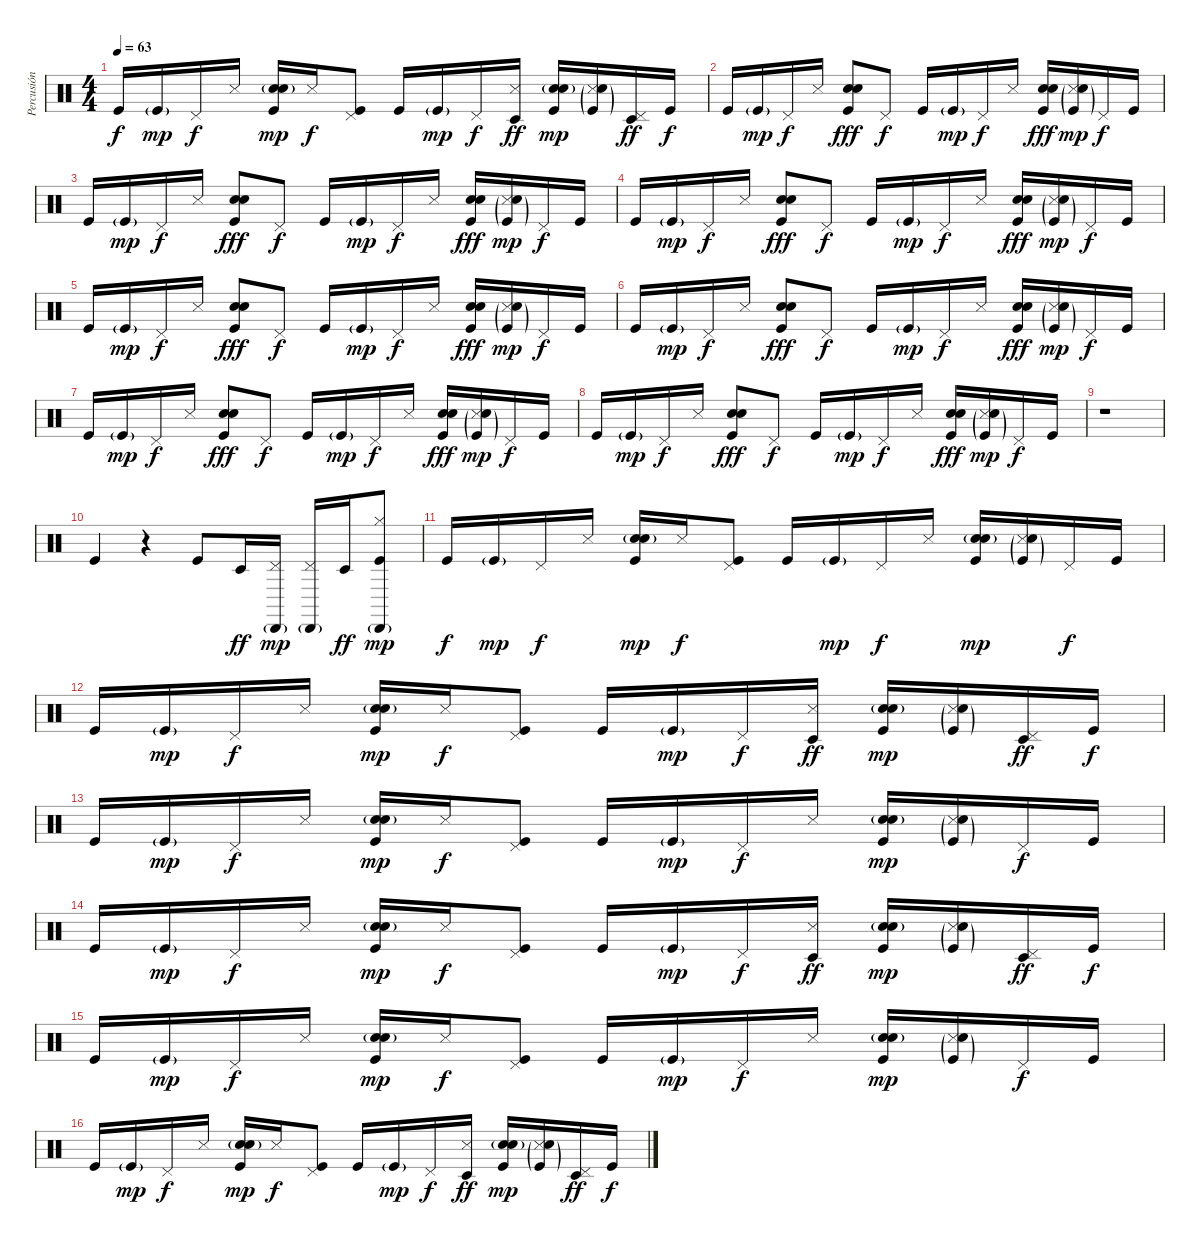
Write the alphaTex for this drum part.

\track ("Percusión" "Percusión") {instrument percussion}
\staff {score}
\articulation defaults
\ts (4 4)
\tempo 63
\clef neutral
\ks c "Kick (hit)".16{dy f} "Kick (hit)"{g}.16{dy mp} "Pedal Hi-Hat (hit)".16{dy f} "Snare (side stick) 3".16
("Kick (hit)" "Snare (hit) 2"{g} "Hand Clap (hit)").16{dy mp} "Snare (side stick) 3".16{dy f} ("Kick (hit)" "Pedal Hi-Hat (hit)").8 "Kick (hit)".16 "Kick (hit)"{g}.16{dy mp} "Pedal Hi-Hat (hit)".16{dy f} ("Timbale low (hit)" "Snare (side stick) 3").16{dy ff} ("Kick (hit)" "Snare (hit) 2"{g} "Hand Clap (hit)").16{dy mp} ("Kick (hit)"{g} "Snare (side stick) 3" "Hand Clap (hit)"{g}).16 ("Timbale low (hit)" "Pedal Hi-Hat (hit)").16{dy ff} "Kick (hit)".16{dy f} |
"Kick (hit)".16 "Kick (hit)"{g}.16{dy mp} "Pedal Hi-Hat (hit)".16{dy f} "Snare (side stick) 3".16 ("Kick (hit)" "Snare (hit) 2" "Hand Clap (hit)").8{dy fff} "Pedal Hi-Hat (hit)".8{dy f} "Kick (hit)".16 "Kick (hit)"{g}.16{dy mp} "Pedal Hi-Hat (hit)".16{dy f} "Snare (side stick) 3".16 ("Kick (hit)" "Snare (hit) 2" "Hand Clap (hit)").16{dy fff} ("Kick (hit)"{g} "Snare (side stick) 3" "Hand Clap (hit)"{g}).16{dy mp} "Pedal Hi-Hat (hit)".16{dy f} "Kick (hit)".16 |
"Kick (hit)".16 "Kick (hit)"{g}.16{dy mp} "Pedal Hi-Hat (hit)".16{dy f} "Snare (side stick) 3".16 ("Kick (hit)" "Snare (hit) 2" "Hand Clap (hit)").8{dy fff} "Pedal Hi-Hat (hit)".8{dy f} "Kick (hit)".16 "Kick (hit)"{g}.16{dy mp} "Pedal Hi-Hat (hit)".16{dy f} "Snare (side stick) 3".16 ("Kick (hit)" "Snare (hit) 2" "Hand Clap (hit)").16{dy fff} ("Kick (hit)"{g} "Snare (side stick) 3" "Hand Clap (hit)"{g}).16{dy mp} "Pedal Hi-Hat (hit)".16{dy f} "Kick (hit)".16 |
"Kick (hit)".16 "Kick (hit)"{g}.16{dy mp} "Pedal Hi-Hat (hit)".16{dy f} "Snare (side stick) 3".16 ("Kick (hit)" "Snare (hit) 2" "Hand Clap (hit)").8{dy fff} "Pedal Hi-Hat (hit)".8{dy f} "Kick (hit)".16 "Kick (hit)"{g}.16{dy mp} "Pedal Hi-Hat (hit)".16{dy f} "Snare (side stick) 3".16 ("Kick (hit)" "Snare (hit) 2" "Hand Clap (hit)").16{dy fff} ("Kick (hit)"{g} "Snare (side stick) 3" "Hand Clap (hit)"{g}).16{dy mp} "Pedal Hi-Hat (hit)".16{dy f} "Kick (hit)".16 |
"Kick (hit)".16 "Kick (hit)"{g}.16{dy mp} "Pedal Hi-Hat (hit)".16{dy f} "Snare (side stick) 3".16 ("Kick (hit)" "Snare (hit) 2" "Hand Clap (hit)").8{dy fff} "Pedal Hi-Hat (hit)".8{dy f} "Kick (hit)".16 "Kick (hit)"{g}.16{dy mp} "Pedal Hi-Hat (hit)".16{dy f} "Snare (side stick) 3".16 ("Kick (hit)" "Snare (hit) 2" "Hand Clap (hit)").16{dy fff} ("Kick (hit)"{g} "Snare (side stick) 3" "Hand Clap (hit)"{g}).16{dy mp} "Pedal Hi-Hat (hit)".16{dy f} "Kick (hit)".16 |
"Kick (hit)".16 "Kick (hit)"{g}.16{dy mp} "Pedal Hi-Hat (hit)".16{dy f} "Snare (side stick) 3".16 ("Kick (hit)" "Snare (hit) 2" "Hand Clap (hit)").8{dy fff} "Pedal Hi-Hat (hit)".8{dy f} "Kick (hit)".16 "Kick (hit)"{g}.16{dy mp} "Pedal Hi-Hat (hit)".16{dy f} "Snare (side stick) 3".16 ("Kick (hit)" "Snare (hit) 2" "Hand Clap (hit)").16{dy fff} ("Kick (hit)"{g} "Snare (side stick) 3" "Hand Clap (hit)"{g}).16{dy mp} "Pedal Hi-Hat (hit)".16{dy f} "Kick (hit)".16 |
"Kick (hit)".16 "Kick (hit)"{g}.16{dy mp} "Pedal Hi-Hat (hit)".16{dy f} "Snare (side stick) 3".16 ("Kick (hit)" "Snare (hit) 2" "Hand Clap (hit)").8{dy fff} "Pedal Hi-Hat (hit)".8{dy f} "Kick (hit)".16 "Kick (hit)"{g}.16{dy mp} "Pedal Hi-Hat (hit)".16{dy f} "Snare (side stick) 3".16 ("Kick (hit)" "Snare (hit) 2" "Hand Clap (hit)").16{dy fff} ("Kick (hit)"{g} "Snare (side stick) 3" "Hand Clap (hit)"{g}).16{dy mp} "Pedal Hi-Hat (hit)".16{dy f} "Kick (hit)".16 |
"Kick (hit)".16 "Kick (hit)"{g}.16{dy mp} "Pedal Hi-Hat (hit)".16{dy f} "Snare (side stick) 3".16 ("Kick (hit)" "Snare (hit) 2" "Hand Clap (hit)").8{dy fff} "Pedal Hi-Hat (hit)".8{dy f} "Kick (hit)".16 "Kick (hit)"{g}.16{dy mp} "Pedal Hi-Hat (hit)".16{dy f} "Snare (side stick) 3".16 ("Kick (hit)" "Snare (hit) 2" "Hand Clap (hit)").16{dy fff} ("Kick (hit)"{g} "Snare (side stick) 3" "Hand Clap (hit)"{g}).16{dy mp} "Pedal Hi-Hat (hit)".16{dy f} "Kick (hit)".16 |
r.1 |
"Kick (hit)".4 r.4 "Kick (hit)".8 "Timbale low (hit)".16{dy ff} ("Cabasa (hit)"{g} "Pedal Hi-Hat (hit)").16{dy mp} ("Cabasa (hit)"{g} "Pedal Hi-Hat (hit)").16 "Timbale low (hit)".16{dy ff} ("Kick (hit)" "Cabasa (hit)"{g} "Hi-Hat (closed)").8{dy mp} |
"Kick (hit)".16{dy f} "Kick (hit)"{g}.16{dy mp} "Pedal Hi-Hat (hit)".16{dy f} "Snare (side stick) 3".16 ("Kick (hit)" "Snare (hit) 2"{g} "Hand Clap (hit)").16{dy mp} "Snare (side stick) 3".16{dy f} ("Kick (hit)" "Pedal Hi-Hat (hit)").8 "Kick (hit)".16 "Kick (hit)"{g}.16{dy mp} "Pedal Hi-Hat (hit)".16{dy f} "Snare (side stick) 3".16 ("Kick (hit)" "Snare (hit) 2"{g} "Hand Clap (hit)").16{dy mp} ("Kick (hit)"{g} "Snare (side stick) 3" "Hand Clap (hit)"{g}).16 "Pedal Hi-Hat (hit)".16{dy f} "Kick (hit)".16 |
"Kick (hit)".16 "Kick (hit)"{g}.16{dy mp} "Pedal Hi-Hat (hit)".16{dy f} "Snare (side stick) 3".16 ("Kick (hit)" "Snare (hit) 2"{g} "Hand Clap (hit)").16{dy mp} "Snare (side stick) 3".16{dy f} ("Kick (hit)" "Pedal Hi-Hat (hit)").8 "Kick (hit)".16 "Kick (hit)"{g}.16{dy mp} "Pedal Hi-Hat (hit)".16{dy f} ("Timbale low (hit)" "Snare (side stick) 3").16{dy ff} ("Kick (hit)" "Snare (hit) 2"{g} "Hand Clap (hit)").16{dy mp} ("Kick (hit)"{g} "Snare (side stick) 3" "Hand Clap (hit)"{g}).16 ("Timbale low (hit)" "Pedal Hi-Hat (hit)").16{dy ff} "Kick (hit)".16{dy f} |
"Kick (hit)".16 "Kick (hit)"{g}.16{dy mp} "Pedal Hi-Hat (hit)".16{dy f} "Snare (side stick) 3".16 ("Kick (hit)" "Snare (hit) 2"{g} "Hand Clap (hit)").16{dy mp} "Snare (side stick) 3".16{dy f} ("Kick (hit)" "Pedal Hi-Hat (hit)").8 "Kick (hit)".16 "Kick (hit)"{g}.16{dy mp} "Pedal Hi-Hat (hit)".16{dy f} "Snare (side stick) 3".16 ("Kick (hit)" "Snare (hit) 2"{g} "Hand Clap (hit)").16{dy mp} ("Kick (hit)"{g} "Snare (side stick) 3" "Hand Clap (hit)"{g}).16 "Pedal Hi-Hat (hit)".16{dy f} "Kick (hit)".16 |
"Kick (hit)".16 "Kick (hit)"{g}.16{dy mp} "Pedal Hi-Hat (hit)".16{dy f} "Snare (side stick) 3".16 ("Kick (hit)" "Snare (hit) 2"{g} "Hand Clap (hit)").16{dy mp} "Snare (side stick) 3".16{dy f} ("Kick (hit)" "Pedal Hi-Hat (hit)").8 "Kick (hit)".16 "Kick (hit)"{g}.16{dy mp} "Pedal Hi-Hat (hit)".16{dy f} ("Timbale low (hit)" "Snare (side stick) 3").16{dy ff} ("Kick (hit)" "Snare (hit) 2"{g} "Hand Clap (hit)").16{dy mp} ("Kick (hit)"{g} "Snare (side stick) 3" "Hand Clap (hit)"{g}).16 ("Timbale low (hit)" "Pedal Hi-Hat (hit)").16{dy ff} "Kick (hit)".16{dy f} |
"Kick (hit)".16 "Kick (hit)"{g}.16{dy mp} "Pedal Hi-Hat (hit)".16{dy f} "Snare (side stick) 3".16 ("Kick (hit)" "Snare (hit) 2"{g} "Hand Clap (hit)").16{dy mp} "Snare (side stick) 3".16{dy f} ("Kick (hit)" "Pedal Hi-Hat (hit)").8 "Kick (hit)".16 "Kick (hit)"{g}.16{dy mp} "Pedal Hi-Hat (hit)".16{dy f} "Snare (side stick) 3".16 ("Kick (hit)" "Snare (hit) 2"{g} "Hand Clap (hit)").16{dy mp} ("Kick (hit)"{g} "Snare (side stick) 3" "Hand Clap (hit)"{g}).16 "Pedal Hi-Hat (hit)".16{dy f} "Kick (hit)".16 |
"Kick (hit)".16 "Kick (hit)"{g}.16{dy mp} "Pedal Hi-Hat (hit)".16{dy f} "Snare (side stick) 3".16 ("Kick (hit)" "Snare (hit) 2"{g} "Hand Clap (hit)").16{dy mp} "Snare (side stick) 3".16{dy f} ("Kick (hit)" "Pedal Hi-Hat (hit)").8 "Kick (hit)".16 "Kick (hit)"{g}.16{dy mp} "Pedal Hi-Hat (hit)".16{dy f} ("Timbale low (hit)" "Snare (side stick) 3").16{dy ff} ("Kick (hit)" "Snare (hit) 2"{g} "Hand Clap (hit)").16{dy mp} ("Kick (hit)"{g} "Snare (side stick) 3" "Hand Clap (hit)"{g}).16 ("Timbale low (hit)" "Pedal Hi-Hat (hit)").16{dy ff} "Kick (hit)".16{dy f}
